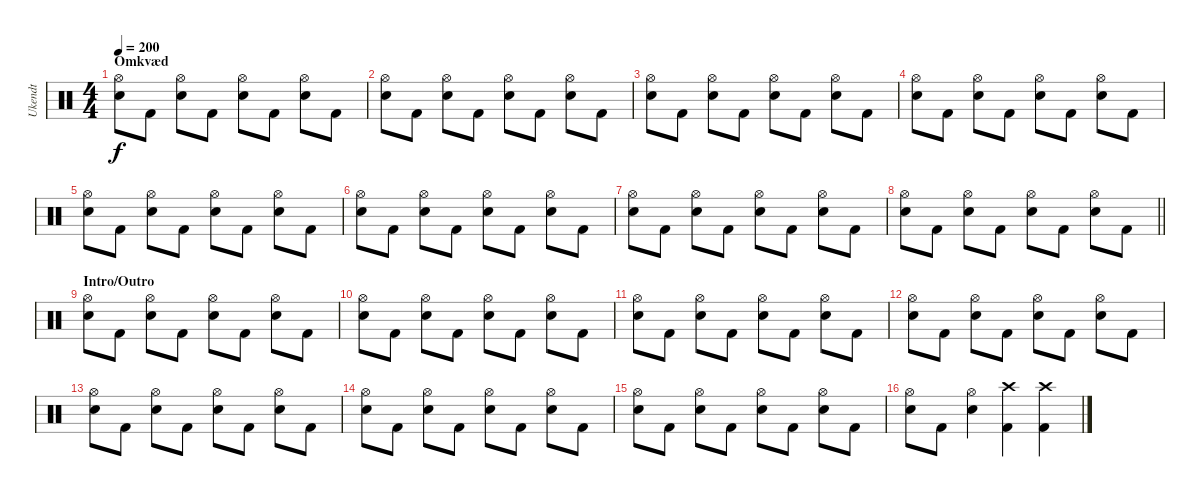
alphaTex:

\track ("Ukendt" "Ukendt") {instrument percussion}
\staff {score}
\articulation defaults
\ts (4 4)
\section ("" "Omkvæd")
\tempo 200
\clef neutral
\ks c
("Hi-Hat (open)" "Snare (hit) 2").8{dy f} "Kick (hit) 2".8 ("Hi-Hat (open)" "Snare (hit) 2").8 "Kick (hit) 2".8 ("Hi-Hat (open)" "Snare (hit) 2").8 "Kick (hit) 2".8 ("Hi-Hat (open)" "Snare (hit) 2").8 "Kick (hit) 2".8 |
("Hi-Hat (open)" "Snare (hit) 2").8 "Kick (hit) 2".8 ("Hi-Hat (open)" "Snare (hit) 2").8 "Kick (hit) 2".8 ("Hi-Hat (open)" "Snare (hit) 2").8 "Kick (hit) 2".8 ("Hi-Hat (open)" "Snare (hit) 2").8 "Kick (hit) 2".8 |
("Hi-Hat (open)" "Snare (hit) 2").8 "Kick (hit) 2".8 ("Hi-Hat (open)" "Snare (hit) 2").8 "Kick (hit) 2".8 ("Hi-Hat (open)" "Snare (hit) 2").8 "Kick (hit) 2".8 ("Hi-Hat (open)" "Snare (hit) 2").8 "Kick (hit) 2".8 |
("Hi-Hat (open)" "Snare (hit) 2").8 "Kick (hit) 2".8 ("Hi-Hat (open)" "Snare (hit) 2").8 "Kick (hit) 2".8 ("Hi-Hat (open)" "Snare (hit) 2").8 "Kick (hit) 2".8 ("Hi-Hat (open)" "Snare (hit) 2").8 "Kick (hit) 2".8 |
("Hi-Hat (open)" "Snare (hit) 2").8 "Kick (hit) 2".8 ("Hi-Hat (open)" "Snare (hit) 2").8 "Kick (hit) 2".8 ("Hi-Hat (open)" "Snare (hit) 2").8 "Kick (hit) 2".8 ("Hi-Hat (open)" "Snare (hit) 2").8 "Kick (hit) 2".8 |
("Hi-Hat (open)" "Snare (hit) 2").8 "Kick (hit) 2".8 ("Hi-Hat (open)" "Snare (hit) 2").8 "Kick (hit) 2".8 ("Hi-Hat (open)" "Snare (hit) 2").8 "Kick (hit) 2".8 ("Hi-Hat (open)" "Snare (hit) 2").8 "Kick (hit) 2".8 |
("Hi-Hat (open)" "Snare (hit) 2").8 "Kick (hit) 2".8 ("Hi-Hat (open)" "Snare (hit) 2").8 "Kick (hit) 2".8 ("Hi-Hat (open)" "Snare (hit) 2").8 "Kick (hit) 2".8 ("Hi-Hat (open)" "Snare (hit) 2").8 "Kick (hit) 2".8 |
\barLineRight lightlight
("Hi-Hat (open)" "Snare (hit) 2").8 "Kick (hit) 2".8 ("Hi-Hat (open)" "Snare (hit) 2").8 "Kick (hit) 2".8 ("Hi-Hat (open)" "Snare (hit) 2").8 "Kick (hit) 2".8 ("Hi-Hat (open)" "Snare (hit) 2").8 "Kick (hit) 2".8 |
\section ("" "Intro/Outro")
("Hi-Hat (open)" "Snare (hit) 2").8 "Kick (hit) 2".8 ("Hi-Hat (open)" "Snare (hit) 2").8 "Kick (hit) 2".8 ("Hi-Hat (open)" "Snare (hit) 2").8 "Kick (hit) 2".8 ("Hi-Hat (open)" "Snare (hit) 2").8 "Kick (hit) 2".8 |
("Hi-Hat (open)" "Snare (hit) 2").8 "Kick (hit) 2".8 ("Hi-Hat (open)" "Snare (hit) 2").8 "Kick (hit) 2".8 ("Hi-Hat (open)" "Snare (hit) 2").8 "Kick (hit) 2".8 ("Hi-Hat (open)" "Snare (hit) 2").8 "Kick (hit) 2".8 |
("Hi-Hat (open)" "Snare (hit) 2").8 "Kick (hit) 2".8 ("Hi-Hat (open)" "Snare (hit) 2").8 "Kick (hit) 2".8 ("Hi-Hat (open)" "Snare (hit) 2").8 "Kick (hit) 2".8 ("Hi-Hat (open)" "Snare (hit) 2").8 "Kick (hit) 2".8 |
("Hi-Hat (open)" "Snare (hit) 2").8 "Kick (hit) 2".8 ("Hi-Hat (open)" "Snare (hit) 2").8 "Kick (hit) 2".8 ("Hi-Hat (open)" "Snare (hit) 2").8 "Kick (hit) 2".8 ("Hi-Hat (open)" "Snare (hit) 2").8 "Kick (hit) 2".8 |
("Hi-Hat (open)" "Snare (hit) 2").8 "Kick (hit) 2".8 ("Hi-Hat (open)" "Snare (hit) 2").8 "Kick (hit) 2".8 ("Hi-Hat (open)" "Snare (hit) 2").8 "Kick (hit) 2".8 ("Hi-Hat (open)" "Snare (hit) 2").8 "Kick (hit) 2".8 |
("Hi-Hat (open)" "Snare (hit) 2").8 "Kick (hit) 2".8 ("Hi-Hat (open)" "Snare (hit) 2").8 "Kick (hit) 2".8 ("Hi-Hat (open)" "Snare (hit) 2").8 "Kick (hit) 2".8 ("Hi-Hat (open)" "Snare (hit) 2").8 "Kick (hit) 2".8 |
("Hi-Hat (open)" "Snare (hit) 2").8 "Kick (hit) 2".8 ("Hi-Hat (open)" "Snare (hit) 2").8 "Kick (hit) 2".8 ("Hi-Hat (open)" "Snare (hit) 2").8 "Kick (hit) 2".8 ("Hi-Hat (open)" "Snare (hit) 2").8 "Kick (hit) 2".8 |
("Hi-Hat (open)" "Snare (hit) 2").8 "Kick (hit) 2".8 ("Hi-Hat (open)" "Snare (hit) 2").4 ("Kick (hit) 2" "Crash high (hit)").4 ("Kick (hit) 2" "Crash high (hit)").4
